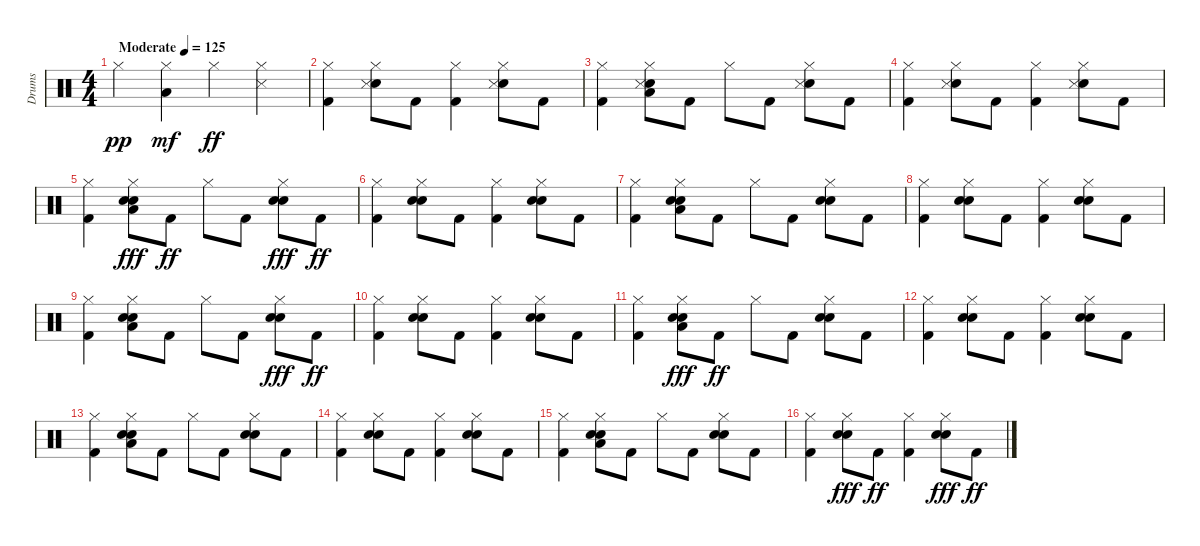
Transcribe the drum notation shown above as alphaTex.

\track ("Drums" "Drums") {instrument percussion}
\staff {score}
\articulation defaults
\ts (4 4)
\tempo (125 "Moderate")
\clef neutral
\ks c "Hi-Hat (closed)".4{dy pp}
("Hi-Hat (closed)" "Low Tom (hit)").4{dy mf} "Hi-Hat (closed)".4{dy ff} ("Hi-Hat (closed)" "Snare (side stick) 3").4 |
("Hi-Hat (closed)" "Kick (hit) 2").4 ("Hi-Hat (closed)" "Hand Clap (hit)" "Snare (side stick) 3").8 "Kick (hit) 2".8 ("Hi-Hat (closed)" "Kick (hit) 2").4 ("Hi-Hat (closed)" "Hand Clap (hit)" "Snare (side stick) 3").8 "Kick (hit) 2".8 |
("Hi-Hat (closed)" "Kick (hit) 2").4 ("Hi-Hat (closed)" "Hand Clap (hit)" "Low Tom (hit)" "Snare (side stick) 3").8 "Kick (hit) 2".8 "Hi-Hat (closed)".8 "Kick (hit) 2".8 ("Hi-Hat (closed)" "Hand Clap (hit)" "Snare (side stick) 3").8 "Kick (hit) 2".8 |
("Hi-Hat (closed)" "Kick (hit) 2").4 ("Hi-Hat (closed)" "Hand Clap (hit)" "Snare (side stick) 3").8 "Kick (hit) 2".8 ("Hi-Hat (closed)" "Kick (hit) 2").4 ("Hi-Hat (closed)" "Hand Clap (hit)" "Snare (side stick) 3").8 "Kick (hit) 2".8 |
("Hi-Hat (closed)" "Kick (hit) 2").4 ("Hi-Hat (closed)" "Hand Clap (hit)" "Low Tom (hit)" "Snare (hit) 2").8{dy fff} "Kick (hit) 2".8{dy ff} "Hi-Hat (closed)".8 "Kick (hit) 2".8 ("Hi-Hat (closed)" "Hand Clap (hit)" "Snare (hit) 2").8{dy fff} "Kick (hit) 2".8{dy ff} |
("Hi-Hat (closed)" "Kick (hit) 2").4 ("Hi-Hat (closed)" "Hand Clap (hit)" "Snare (hit) 2").8 "Kick (hit) 2".8 ("Hi-Hat (closed)" "Kick (hit) 2").4 ("Hi-Hat (closed)" "Hand Clap (hit)" "Snare (hit) 2").8 "Kick (hit) 2".8 |
("Hi-Hat (closed)" "Kick (hit) 2").4 ("Hi-Hat (closed)" "Hand Clap (hit)" "Low Tom (hit)" "Snare (hit) 2").8 "Kick (hit) 2".8 "Hi-Hat (closed)".8 "Kick (hit) 2".8 ("Hi-Hat (closed)" "Hand Clap (hit)" "Snare (hit) 2").8 "Kick (hit) 2".8 |
("Hi-Hat (closed)" "Kick (hit) 2").4 ("Hi-Hat (closed)" "Hand Clap (hit)" "Snare (hit) 2").8 "Kick (hit) 2".8 ("Hi-Hat (closed)" "Kick (hit) 2").4 ("Hi-Hat (closed)" "Hand Clap (hit)" "Snare (hit) 2").8 "Kick (hit) 2".8 |
("Hi-Hat (closed)" "Kick (hit) 2").4 ("Hi-Hat (closed)" "Hand Clap (hit)" "Low Tom (hit)" "Snare (hit) 2").8 "Kick (hit) 2".8 "Hi-Hat (closed)".8 "Kick (hit) 2".8 ("Hi-Hat (closed)" "Hand Clap (hit)" "Snare (hit) 2").8{dy fff} "Kick (hit) 2".8{dy ff} |
("Hi-Hat (closed)" "Kick (hit) 2").4 ("Hi-Hat (closed)" "Hand Clap (hit)" "Snare (hit) 2").8 "Kick (hit) 2".8 ("Hi-Hat (closed)" "Kick (hit) 2").4 ("Hi-Hat (closed)" "Hand Clap (hit)" "Snare (hit) 2").8 "Kick (hit) 2".8 |
("Hi-Hat (closed)" "Kick (hit) 2").4 ("Hi-Hat (closed)" "Hand Clap (hit)" "Low Tom (hit)" "Snare (hit) 2").8{dy fff} "Kick (hit) 2".8{dy ff} "Hi-Hat (closed)".8 "Kick (hit) 2".8 ("Hi-Hat (closed)" "Hand Clap (hit)" "Snare (hit) 2").8 "Kick (hit) 2".8 |
("Hi-Hat (closed)" "Kick (hit) 2").4 ("Hi-Hat (closed)" "Hand Clap (hit)" "Snare (hit) 2").8 "Kick (hit) 2".8 ("Hi-Hat (closed)" "Kick (hit) 2").4 ("Hi-Hat (closed)" "Hand Clap (hit)" "Snare (hit) 2").8 "Kick (hit) 2".8 |
("Hi-Hat (closed)" "Kick (hit) 2").4 ("Hi-Hat (closed)" "Hand Clap (hit)" "Low Tom (hit)" "Snare (hit) 2").8 "Kick (hit) 2".8 "Hi-Hat (closed)".8 "Kick (hit) 2".8 ("Hi-Hat (closed)" "Hand Clap (hit)" "Snare (hit) 2").8 "Kick (hit) 2".8 |
("Hi-Hat (closed)" "Kick (hit) 2").4 ("Hi-Hat (closed)" "Hand Clap (hit)" "Snare (hit) 2").8 "Kick (hit) 2".8 ("Hi-Hat (closed)" "Kick (hit) 2").4 ("Hi-Hat (closed)" "Hand Clap (hit)" "Snare (hit) 2").8 "Kick (hit) 2".8 |
("Hi-Hat (closed)" "Kick (hit) 2").4 ("Hi-Hat (closed)" "Hand Clap (hit)" "Low Tom (hit)" "Snare (hit) 2").8 "Kick (hit) 2".8 "Hi-Hat (closed)".8 "Kick (hit) 2".8 ("Hi-Hat (closed)" "Hand Clap (hit)" "Snare (hit) 2").8 "Kick (hit) 2".8 |
("Hi-Hat (closed)" "Kick (hit) 2").4 ("Hi-Hat (closed)" "Hand Clap (hit)" "Snare (hit) 2").8{dy fff} "Kick (hit) 2".8{dy ff} ("Hi-Hat (closed)" "Kick (hit) 2").4 ("Hi-Hat (closed)" "Hand Clap (hit)" "Snare (hit) 2").8{dy fff} "Kick (hit) 2".8{dy ff}
